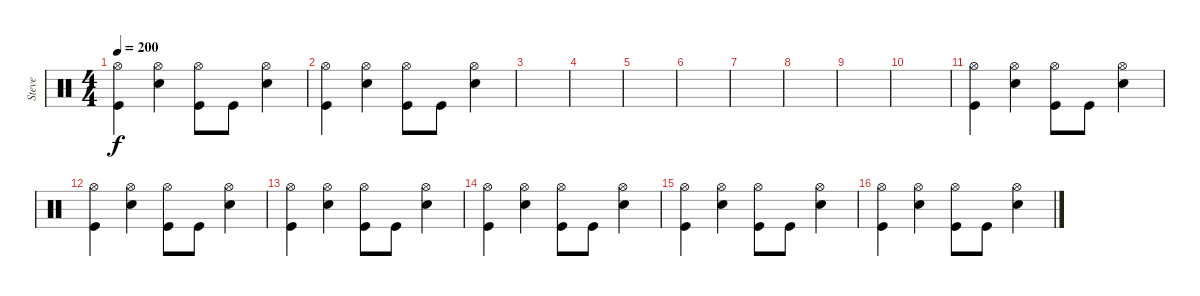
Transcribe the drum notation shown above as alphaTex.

\track ("Steve" "Steve") {instrument percussion}
\staff {score}
\articulation defaults
\ts (4 4)
\tempo 200
\clef neutral
\ks c
("Hi-Hat (open)" "Kick (hit)").4{dy f} ("Hi-Hat (open)" "Snare (hit) 2").4 ("Hi-Hat (open)" "Kick (hit)").8 "Kick (hit)".8 ("Hi-Hat (open)" "Snare (hit) 2").4 |
("Hi-Hat (open)" "Kick (hit)").4 ("Hi-Hat (open)" "Snare (hit) 2").4 ("Hi-Hat (open)" "Kick (hit)").8 "Kick (hit)".8 ("Hi-Hat (open)" "Snare (hit) 2").4 |
|
|
|
|
|
|
|
|
("Hi-Hat (open)" "Kick (hit)").4 ("Hi-Hat (open)" "Snare (hit) 2").4 ("Hi-Hat (open)" "Kick (hit)").8 "Kick (hit)".8 ("Hi-Hat (open)" "Snare (hit) 2").4 |
("Hi-Hat (open)" "Kick (hit)").4 ("Hi-Hat (open)" "Snare (hit) 2").4 ("Hi-Hat (open)" "Kick (hit)").8 "Kick (hit)".8 ("Hi-Hat (open)" "Snare (hit) 2").4 |
("Hi-Hat (open)" "Kick (hit)").4 ("Hi-Hat (open)" "Snare (hit) 2").4 ("Hi-Hat (open)" "Kick (hit)").8 "Kick (hit)".8 ("Hi-Hat (open)" "Snare (hit) 2").4 |
("Hi-Hat (open)" "Kick (hit)").4 ("Hi-Hat (open)" "Snare (hit) 2").4 ("Hi-Hat (open)" "Kick (hit)").8 "Kick (hit)".8 ("Hi-Hat (open)" "Snare (hit) 2").4 |
("Hi-Hat (open)" "Kick (hit)").4 ("Hi-Hat (open)" "Snare (hit) 2").4 ("Hi-Hat (open)" "Kick (hit)").8 "Kick (hit)".8 ("Hi-Hat (open)" "Snare (hit) 2").4 |
("Hi-Hat (open)" "Kick (hit)").4 ("Hi-Hat (open)" "Snare (hit) 2").4 ("Hi-Hat (open)" "Kick (hit)").8 "Kick (hit)".8 ("Hi-Hat (open)" "Snare (hit) 2").4
